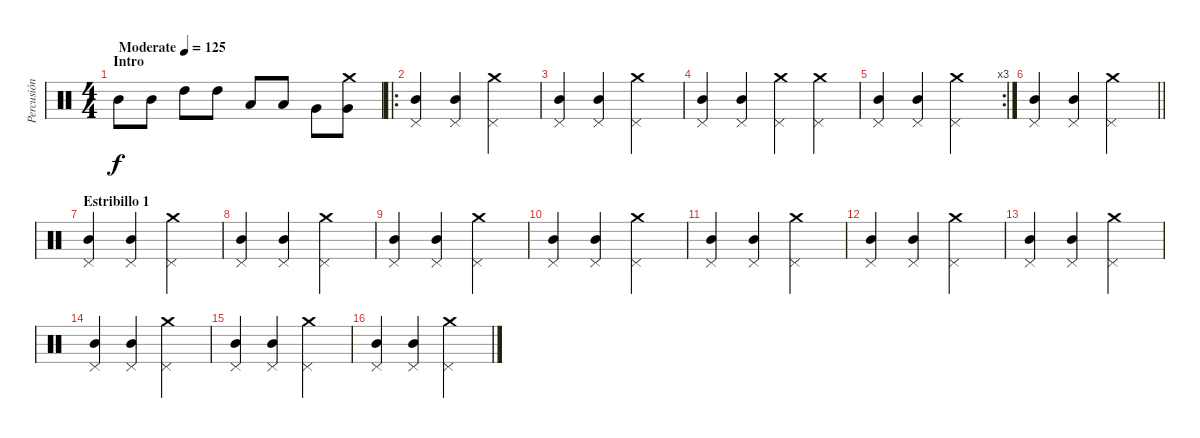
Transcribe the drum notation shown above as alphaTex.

\track ("Percusión" "Percusión") {instrument percussion}
\staff {score}
\articulation defaults
\ts (4 4)
\section ("" "Intro")
\tempo (125 "Moderate")
\clef neutral
\ks c "Mid Tom (hit)".8{dy f} "Mid Tom (hit)".8 "High Tom (hit)".8 "High Tom (hit)".8 "Low Tom (hit)".8 "Low Tom (hit)".8 "Very Low Tom (hit)".8
("Very Low Tom (hit)" "Crash medium (hit)").8 |
\ro
("Pedal Hi-Hat (hit)" "Mid Tom (hit)").4 ("Pedal Hi-Hat (hit)" "Mid Tom (hit)").4 ("Crash medium (hit)" "Pedal Hi-Hat (hit)").2 |
("Pedal Hi-Hat (hit)" "Mid Tom (hit)").4 ("Pedal Hi-Hat (hit)" "Mid Tom (hit)").4 ("Crash medium (hit)" "Pedal Hi-Hat (hit)").2 |
("Pedal Hi-Hat (hit)" "Mid Tom (hit)").4 ("Pedal Hi-Hat (hit)" "Mid Tom (hit)").4 ("Crash medium (hit)" "Pedal Hi-Hat (hit)").4 ("Crash medium (hit)" "Pedal Hi-Hat (hit)").4 |
\rc 3
("Pedal Hi-Hat (hit)" "Mid Tom (hit)").4 ("Pedal Hi-Hat (hit)" "Mid Tom (hit)").4 ("Crash medium (hit)" "Pedal Hi-Hat (hit)").2 |
\barLineRight lightlight
("Pedal Hi-Hat (hit)" "Mid Tom (hit)").4 ("Pedal Hi-Hat (hit)" "Mid Tom (hit)").4 ("Crash medium (hit)" "Pedal Hi-Hat (hit)").2 |
\section ("" "Estribillo 1")
("Pedal Hi-Hat (hit)" "Mid Tom (hit)").4 ("Pedal Hi-Hat (hit)" "Mid Tom (hit)").4 ("Crash medium (hit)" "Pedal Hi-Hat (hit)").2 |
("Pedal Hi-Hat (hit)" "Mid Tom (hit)").4 ("Pedal Hi-Hat (hit)" "Mid Tom (hit)").4 ("Crash medium (hit)" "Pedal Hi-Hat (hit)").2 |
("Pedal Hi-Hat (hit)" "Mid Tom (hit)").4 ("Pedal Hi-Hat (hit)" "Mid Tom (hit)").4 ("Crash medium (hit)" "Pedal Hi-Hat (hit)").2 |
("Pedal Hi-Hat (hit)" "Mid Tom (hit)").4 ("Pedal Hi-Hat (hit)" "Mid Tom (hit)").4 ("Crash medium (hit)" "Pedal Hi-Hat (hit)").2 |
("Pedal Hi-Hat (hit)" "Mid Tom (hit)").4 ("Pedal Hi-Hat (hit)" "Mid Tom (hit)").4 ("Crash medium (hit)" "Pedal Hi-Hat (hit)").2 |
("Pedal Hi-Hat (hit)" "Mid Tom (hit)").4 ("Pedal Hi-Hat (hit)" "Mid Tom (hit)").4 ("Crash medium (hit)" "Pedal Hi-Hat (hit)").2 |
("Pedal Hi-Hat (hit)" "Mid Tom (hit)").4 ("Pedal Hi-Hat (hit)" "Mid Tom (hit)").4 ("Crash medium (hit)" "Pedal Hi-Hat (hit)").2 |
("Pedal Hi-Hat (hit)" "Mid Tom (hit)").4 ("Pedal Hi-Hat (hit)" "Mid Tom (hit)").4 ("Crash medium (hit)" "Pedal Hi-Hat (hit)").2 |
("Pedal Hi-Hat (hit)" "Mid Tom (hit)").4 ("Pedal Hi-Hat (hit)" "Mid Tom (hit)").4 ("Crash medium (hit)" "Pedal Hi-Hat (hit)").2 |
("Pedal Hi-Hat (hit)" "Mid Tom (hit)").4 ("Pedal Hi-Hat (hit)" "Mid Tom (hit)").4 ("Crash medium (hit)" "Pedal Hi-Hat (hit)").2
